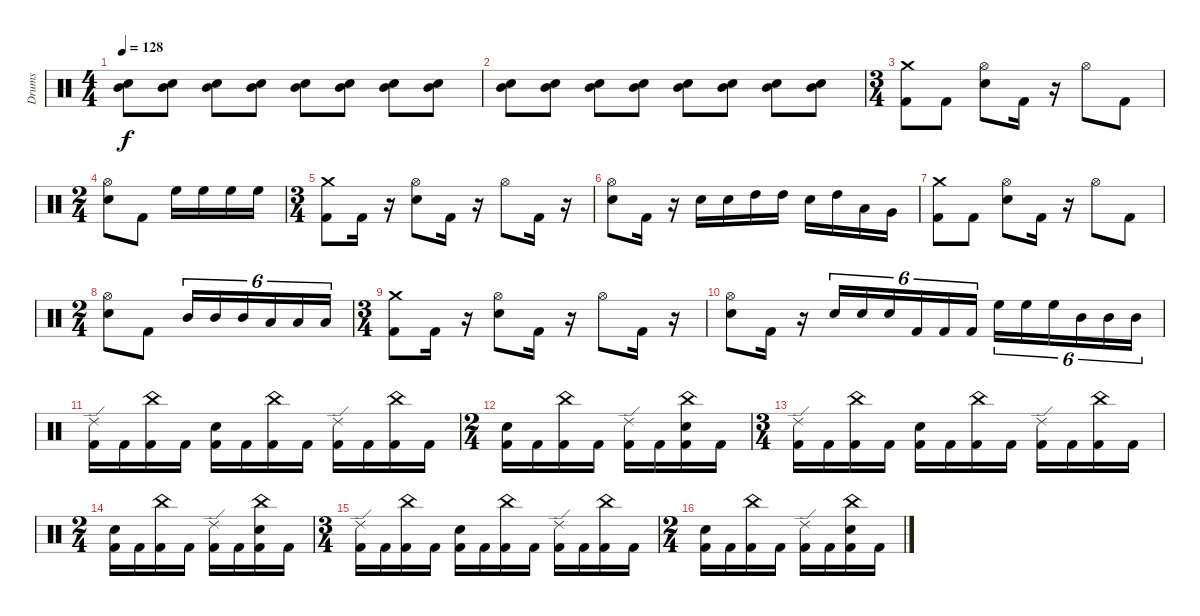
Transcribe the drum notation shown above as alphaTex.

\track ("Drums" "Drums") {instrument percussion}
\staff {score}
\articulation defaults
\ts (4 4)
\tempo 128
\clef neutral
\ks c
("Mid Tom (hit)" "Electric Snare (hit)").8{dy f volume 6} ("Mid Tom (hit)" "Electric Snare (hit)").8{volume 10} ("Mid Tom (hit)" "Electric Snare (hit)").8 ("Mid Tom (hit)" "Electric Snare (hit)").8 ("Mid Tom (hit)" "Electric Snare (hit)").8 ("Mid Tom (hit)" "Electric Snare (hit)").8 ("Mid Tom (hit)" "Electric Snare (hit)").8 ("Mid Tom (hit)" "Electric Snare (hit)").8 |
("Mid Tom (hit)" "Electric Snare (hit)").8{volume 16} ("Mid Tom (hit)" "Electric Snare (hit)").8 ("Mid Tom (hit)" "Electric Snare (hit)").8 ("Mid Tom (hit)" "Electric Snare (hit)").8 ("Mid Tom (hit)" "Electric Snare (hit)").8 ("Mid Tom (hit)" "Electric Snare (hit)").8 ("Mid Tom (hit)" "Electric Snare (hit)").8 ("Mid Tom (hit)" "Electric Snare (hit)").8 |
\ts (3 4)
("Kick (hit) 2" "Crash medium (hit)").8 "Kick (hit) 2".8 ("Electric Snare (hit)" "Hi-Hat (open)").8 "Kick (hit) 2".16 r.16 "Hi-Hat (open)".8 "Kick (hit) 2".8 |
\ts (2 4)
("Electric Snare (hit)" "Hi-Hat (open)").8 "Kick (hit) 2".8 "High Floor Tom (hit)".16 "High Floor Tom (hit)".16 "High Floor Tom (hit)".16 "High Floor Tom (hit)".16 |
\ts (3 4)
("Crash medium (hit)" "Kick (hit) 2").8 "Kick (hit) 2".16 r.16 ("Hi-Hat (open)" "Electric Snare (hit)").8 "Kick (hit) 2".16 r.16 "Hi-Hat (open)".8 "Kick (hit) 2".16 r.16 |
("Hi-Hat (open)" "Electric Snare (hit)").8 "Kick (hit) 2".16 r.16 "Electric Snare (hit)".16 "Electric Snare (hit)".16 "High Tom (hit)".16 "High Tom (hit)".16 "Electric Snare (hit)".16 "High Tom (hit)".16 "Low Tom (hit)".16 "Very Low Tom (hit)".16 |
("Kick (hit) 2" "Crash medium (hit)").8 "Kick (hit) 2".8 ("Electric Snare (hit)" "Hi-Hat (open)").8 "Kick (hit) 2".16 r.16 "Hi-Hat (open)".8 "Kick (hit) 2".8 |
\ts (2 4)
("Electric Snare (hit)" "Hi-Hat (open)").8 "Kick (hit) 2".8 "Mid Tom (hit)".16{tu (6 4)} "Mid Tom (hit)".16{tu (6 4)} "Mid Tom (hit)".16{tu (6 4)} "Low Tom (hit)".16{tu (6 4)} "Low Tom (hit)".16{tu (6 4)} "Low Tom (hit)".16{tu (6 4)} |
\ts (3 4)
("Crash medium (hit)" "Kick (hit) 2").8 "Kick (hit) 2".16 r.16 ("Hi-Hat (open)" "Electric Snare (hit)").8 "Kick (hit) 2".16 r.16 "Hi-Hat (open)".8 "Kick (hit) 2".16 r.16 |
("Hi-Hat (open)" "Electric Snare (hit)").8 "Kick (hit) 2".16 r.16 "Electric Snare (hit)".16{tu (6 4)} "Electric Snare (hit)".16{tu (6 4)} "Electric Snare (hit)".16{tu (6 4)} "Kick (hit) 2".16{tu (6 4)} "Kick (hit) 2".16{tu (6 4)} "Kick (hit) 2".16{tu (6 4)} "High Floor Tom (hit)".16{tu (6 4)} "High Floor Tom (hit)".16{tu (6 4)} "High Floor Tom (hit)".16{tu (6 4)} "Mid Tom (hit)".16{tu (6 4)} "Mid Tom (hit)".16{tu (6 4)} "Mid Tom (hit)".16{tu (6 4)} |
("Ride (edge) 2" "Kick (hit) 2").16 "Kick (hit) 2".16 ("China (hit)" "Kick (hit) 2").16 "Kick (hit) 2".16 ("Electric Snare (hit)" "Kick (hit) 2").16 "Kick (hit) 2".16 ("China (hit)" "Kick (hit) 2").16 "Kick (hit) 2".16 ("Ride (edge) 2" "Kick (hit) 2").16 "Kick (hit) 2".16 ("China (hit)" "Kick (hit) 2").16 "Kick (hit) 2".16 |
\ts (2 4)
("Electric Snare (hit)" "Kick (hit) 2").16 "Kick (hit) 2".16 ("China (hit)" "Kick (hit) 2").16 "Kick (hit) 2".16 ("Ride (edge) 2" "Kick (hit) 2").16 "Kick (hit) 2".16 ("China (hit)" "Electric Snare (hit)" "Kick (hit) 2").16 "Kick (hit) 2".16 |
\ts (3 4)
("Ride (edge) 2" "Kick (hit) 2").16 "Kick (hit) 2".16 ("China (hit)" "Kick (hit) 2").16 "Kick (hit) 2".16 ("Electric Snare (hit)" "Kick (hit) 2").16 "Kick (hit) 2".16 ("China (hit)" "Kick (hit) 2").16 "Kick (hit) 2".16 ("Ride (edge) 2" "Kick (hit) 2").16 "Kick (hit) 2".16 ("China (hit)" "Kick (hit) 2").16 "Kick (hit) 2".16 |
\ts (2 4)
("Electric Snare (hit)" "Kick (hit) 2").16 "Kick (hit) 2".16 ("China (hit)" "Kick (hit) 2").16 "Kick (hit) 2".16 ("Ride (edge) 2" "Kick (hit) 2").16 "Kick (hit) 2".16 ("China (hit)" "Electric Snare (hit)" "Kick (hit) 2").16 "Kick (hit) 2".16 |
\ts (3 4)
("Ride (edge) 2" "Kick (hit) 2").16 "Kick (hit) 2".16 ("China (hit)" "Kick (hit) 2").16 "Kick (hit) 2".16 ("Electric Snare (hit)" "Kick (hit) 2").16 "Kick (hit) 2".16 ("China (hit)" "Kick (hit) 2").16 "Kick (hit) 2".16 ("Ride (edge) 2" "Kick (hit) 2").16 "Kick (hit) 2".16 ("China (hit)" "Kick (hit) 2").16 "Kick (hit) 2".16 |
\ts (2 4)
("Electric Snare (hit)" "Kick (hit) 2").16 "Kick (hit) 2".16 ("China (hit)" "Kick (hit) 2").16 "Kick (hit) 2".16 ("Ride (edge) 2" "Kick (hit) 2").16 "Kick (hit) 2".16 ("China (hit)" "Electric Snare (hit)" "Kick (hit) 2").16 "Kick (hit) 2".16
